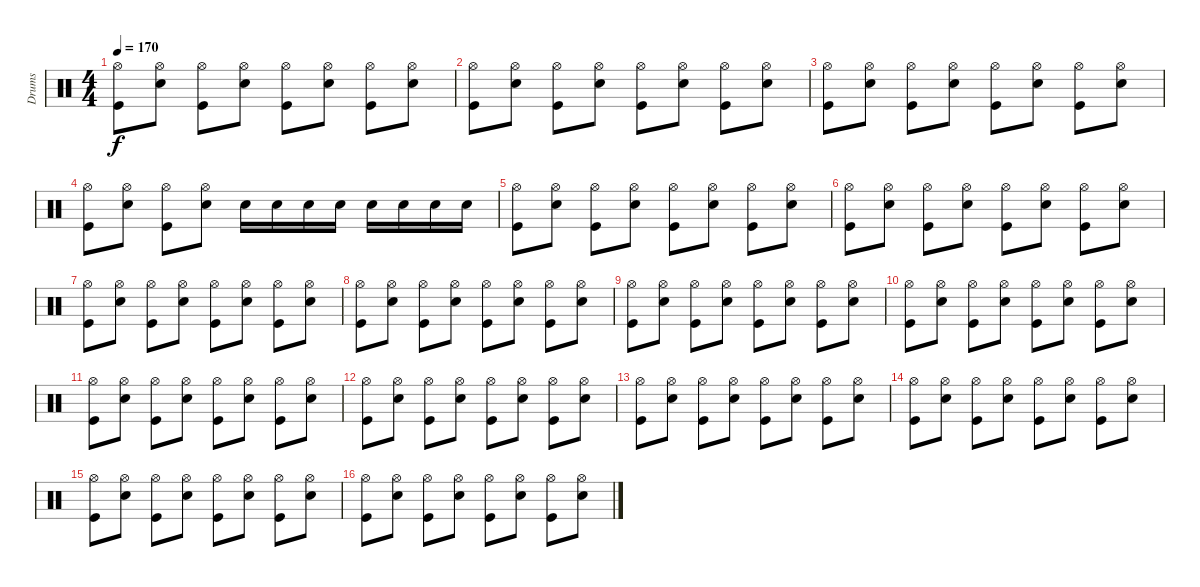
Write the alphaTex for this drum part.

\track ("Drums" "Drums") {instrument percussion}
\staff {score}
\articulation defaults
\ts (4 4)
\tempo 170
\clef neutral
\ks c
("Hi-Hat (open)" "Kick (hit)").8{dy f} ("Hi-Hat (open)" "Snare (hit) 2").8 ("Hi-Hat (open)" "Kick (hit)").8 ("Hi-Hat (open)" "Snare (hit) 2").8 ("Hi-Hat (open)" "Kick (hit)").8 ("Hi-Hat (open)" "Snare (hit) 2").8 ("Hi-Hat (open)" "Kick (hit)").8 ("Hi-Hat (open)" "Snare (hit) 2").8 |
("Hi-Hat (open)" "Kick (hit)").8 ("Hi-Hat (open)" "Snare (hit) 2").8 ("Hi-Hat (open)" "Kick (hit)").8 ("Hi-Hat (open)" "Snare (hit) 2").8 ("Hi-Hat (open)" "Kick (hit)").8 ("Hi-Hat (open)" "Snare (hit) 2").8 ("Hi-Hat (open)" "Kick (hit)").8 ("Hi-Hat (open)" "Snare (hit) 2").8 |
("Hi-Hat (open)" "Kick (hit)").8 ("Hi-Hat (open)" "Snare (hit) 2").8 ("Hi-Hat (open)" "Kick (hit)").8 ("Hi-Hat (open)" "Snare (hit) 2").8 ("Hi-Hat (open)" "Kick (hit)").8 ("Hi-Hat (open)" "Snare (hit) 2").8 ("Hi-Hat (open)" "Kick (hit)").8 ("Hi-Hat (open)" "Snare (hit) 2").8 |
("Hi-Hat (open)" "Kick (hit)").8 ("Hi-Hat (open)" "Snare (hit) 2").8 ("Hi-Hat (open)" "Kick (hit)").8 ("Hi-Hat (open)" "Snare (hit) 2").8 "Snare (hit) 2".16 "Snare (hit) 2".16 "Snare (hit) 2".16 "Snare (hit) 2".16 "Snare (hit) 2".16 "Snare (hit) 2".16 "Snare (hit) 2".16 "Snare (hit) 2".16 |
("Hi-Hat (open)" "Kick (hit)").8 ("Hi-Hat (open)" "Snare (hit) 2").8 ("Hi-Hat (open)" "Kick (hit)").8 ("Hi-Hat (open)" "Snare (hit) 2").8 ("Hi-Hat (open)" "Kick (hit)").8 ("Hi-Hat (open)" "Snare (hit) 2").8 ("Hi-Hat (open)" "Kick (hit)").8 ("Hi-Hat (open)" "Snare (hit) 2").8 |
("Hi-Hat (open)" "Kick (hit)").8 ("Hi-Hat (open)" "Snare (hit) 2").8 ("Hi-Hat (open)" "Kick (hit)").8 ("Hi-Hat (open)" "Snare (hit) 2").8 ("Hi-Hat (open)" "Kick (hit)").8 ("Hi-Hat (open)" "Snare (hit) 2").8 ("Hi-Hat (open)" "Kick (hit)").8 ("Hi-Hat (open)" "Snare (hit) 2").8 |
("Hi-Hat (open)" "Kick (hit)").8 ("Hi-Hat (open)" "Snare (hit) 2").8 ("Hi-Hat (open)" "Kick (hit)").8 ("Hi-Hat (open)" "Snare (hit) 2").8 ("Hi-Hat (open)" "Kick (hit)").8 ("Hi-Hat (open)" "Snare (hit) 2").8 ("Hi-Hat (open)" "Kick (hit)").8 ("Hi-Hat (open)" "Snare (hit) 2").8 |
("Hi-Hat (open)" "Kick (hit)").8 ("Hi-Hat (open)" "Snare (hit) 2").8 ("Hi-Hat (open)" "Kick (hit)").8 ("Hi-Hat (open)" "Snare (hit) 2").8 ("Hi-Hat (open)" "Kick (hit)").8 ("Hi-Hat (open)" "Snare (hit) 2").8 ("Hi-Hat (open)" "Kick (hit)").8 ("Hi-Hat (open)" "Snare (hit) 2").8 |
("Hi-Hat (open)" "Kick (hit)").8 ("Hi-Hat (open)" "Snare (hit) 2").8 ("Hi-Hat (open)" "Kick (hit)").8 ("Hi-Hat (open)" "Snare (hit) 2").8 ("Hi-Hat (open)" "Kick (hit)").8 ("Hi-Hat (open)" "Snare (hit) 2").8 ("Hi-Hat (open)" "Kick (hit)").8 ("Hi-Hat (open)" "Snare (hit) 2").8 |
("Hi-Hat (open)" "Kick (hit)").8 ("Hi-Hat (open)" "Snare (hit) 2").8 ("Hi-Hat (open)" "Kick (hit)").8 ("Hi-Hat (open)" "Snare (hit) 2").8 ("Hi-Hat (open)" "Kick (hit)").8 ("Hi-Hat (open)" "Snare (hit) 2").8 ("Hi-Hat (open)" "Kick (hit)").8 ("Hi-Hat (open)" "Snare (hit) 2").8 |
("Hi-Hat (open)" "Kick (hit)").8 ("Hi-Hat (open)" "Snare (hit) 2").8 ("Hi-Hat (open)" "Kick (hit)").8 ("Hi-Hat (open)" "Snare (hit) 2").8 ("Hi-Hat (open)" "Kick (hit)").8 ("Hi-Hat (open)" "Snare (hit) 2").8 ("Hi-Hat (open)" "Kick (hit)").8 ("Hi-Hat (open)" "Snare (hit) 2").8 |
("Hi-Hat (open)" "Kick (hit)").8 ("Hi-Hat (open)" "Snare (hit) 2").8 ("Hi-Hat (open)" "Kick (hit)").8 ("Hi-Hat (open)" "Snare (hit) 2").8 ("Hi-Hat (open)" "Kick (hit)").8 ("Hi-Hat (open)" "Snare (hit) 2").8 ("Hi-Hat (open)" "Kick (hit)").8 ("Hi-Hat (open)" "Snare (hit) 2").8 |
("Hi-Hat (open)" "Kick (hit)").8 ("Hi-Hat (open)" "Snare (hit) 2").8 ("Hi-Hat (open)" "Kick (hit)").8 ("Hi-Hat (open)" "Snare (hit) 2").8 ("Hi-Hat (open)" "Kick (hit)").8 ("Hi-Hat (open)" "Snare (hit) 2").8 ("Hi-Hat (open)" "Kick (hit)").8 ("Hi-Hat (open)" "Snare (hit) 2").8 |
("Hi-Hat (open)" "Kick (hit)").8 ("Hi-Hat (open)" "Snare (hit) 2").8 ("Hi-Hat (open)" "Kick (hit)").8 ("Hi-Hat (open)" "Snare (hit) 2").8 ("Hi-Hat (open)" "Kick (hit)").8 ("Hi-Hat (open)" "Snare (hit) 2").8 ("Hi-Hat (open)" "Kick (hit)").8 ("Hi-Hat (open)" "Snare (hit) 2").8 |
("Hi-Hat (open)" "Kick (hit)").8 ("Hi-Hat (open)" "Snare (hit) 2").8 ("Hi-Hat (open)" "Kick (hit)").8 ("Hi-Hat (open)" "Snare (hit) 2").8 ("Hi-Hat (open)" "Kick (hit)").8 ("Hi-Hat (open)" "Snare (hit) 2").8 ("Hi-Hat (open)" "Kick (hit)").8 ("Hi-Hat (open)" "Snare (hit) 2").8 |
("Hi-Hat (open)" "Kick (hit)").8 ("Hi-Hat (open)" "Snare (hit) 2").8 ("Hi-Hat (open)" "Kick (hit)").8 ("Hi-Hat (open)" "Snare (hit) 2").8 ("Hi-Hat (open)" "Kick (hit)").8 ("Hi-Hat (open)" "Snare (hit) 2").8 ("Hi-Hat (open)" "Kick (hit)").8 ("Hi-Hat (open)" "Snare (hit) 2").8
